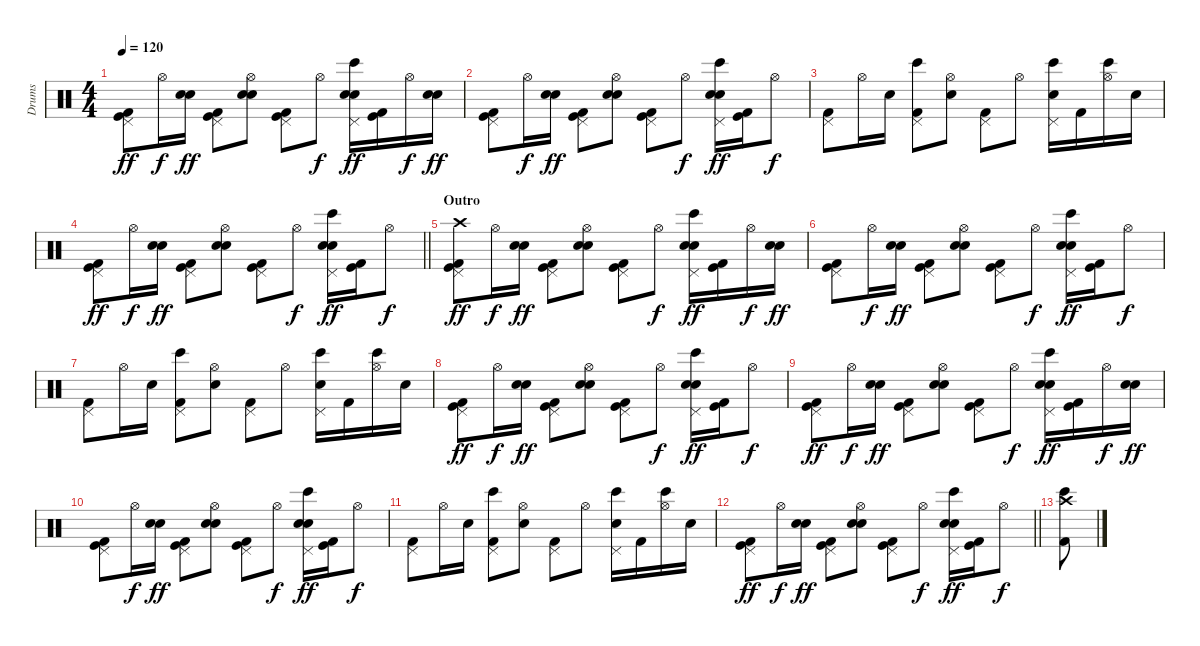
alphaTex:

\track ("Drums" "Drums") {instrument percussion}
\staff {score}
\articulation defaults
\ts (4 4)
\tempo 120
\clef neutral
\ks c
("Pedal Hi-Hat (hit)" "Kick (hit)" "Kick (hit) 2").8{dy ff} "Hi-Hat (open)".16{dy f} ("Snare (hit) 2" "Electric Snare (hit)").16{dy ff} ("Pedal Hi-Hat (hit)" "Kick (hit)" "Kick (hit) 2").8 ("Hi-Hat (open)" "Snare (hit) 2" "Electric Snare (hit)").8 ("Pedal Hi-Hat (hit)" "Kick (hit)" "Kick (hit) 2").8 "Hi-Hat (open)".8{dy f} ("Pedal Hi-Hat (hit)" "Bongo High (hit)" "Snare (hit) 2" "Electric Snare (hit)").16{dy ff} ("Kick (hit)" "Kick (hit) 2").16 "Hi-Hat (open)".16{dy f} ("Snare (hit) 2" "Electric Snare (hit)").16{dy ff} |
("Pedal Hi-Hat (hit)" "Kick (hit)" "Kick (hit) 2").8 "Hi-Hat (open)".16{dy f} ("Snare (hit) 2" "Electric Snare (hit)").16{dy ff} ("Pedal Hi-Hat (hit)" "Kick (hit)" "Kick (hit) 2").8 ("Hi-Hat (open)" "Snare (hit) 2" "Electric Snare (hit)").8 ("Pedal Hi-Hat (hit)" "Kick (hit)" "Kick (hit) 2").8 "Hi-Hat (open)".8{dy f} ("Pedal Hi-Hat (hit)" "Bongo High (hit)" "Snare (hit) 2" "Electric Snare (hit)").16{dy ff} ("Kick (hit)" "Kick (hit) 2").16 "Hi-Hat (open)".8{dy f} |
("Pedal Hi-Hat (hit)" "Kick (hit) 2").8 "Hi-Hat (open)".16 "Snare (hit) 2".16 ("Pedal Hi-Hat (hit)" "Bongo High (hit)" "Kick (hit) 2").8 ("Hi-Hat (open)" "Snare (hit) 2").8 ("Pedal Hi-Hat (hit)" "Kick (hit) 2").8 "Hi-Hat (open)".8 ("Pedal Hi-Hat (hit)" "Bongo High (hit)" "Snare (hit) 2").16 "Kick (hit) 2".16 ("Hi-Hat (open)" "Bongo High (hit)").16 "Snare (hit) 2".16 |
\barLineRight lightlight
("Pedal Hi-Hat (hit)" "Kick (hit)" "Kick (hit) 2").8{dy ff} "Hi-Hat (open)".16{dy f} ("Snare (hit) 2" "Electric Snare (hit)").16{dy ff} ("Pedal Hi-Hat (hit)" "Kick (hit)" "Kick (hit) 2").8 ("Hi-Hat (open)" "Snare (hit) 2" "Electric Snare (hit)").8 ("Pedal Hi-Hat (hit)" "Kick (hit)" "Kick (hit) 2").8 "Hi-Hat (open)".8{dy f} ("Pedal Hi-Hat (hit)" "Bongo High (hit)" "Snare (hit) 2" "Electric Snare (hit)").16{dy ff} ("Kick (hit)" "Kick (hit) 2").16 "Hi-Hat (open)".8{dy f} |
\section ("" "Outro")
("Crash high (hit)" "Pedal Hi-Hat (hit)" "Kick (hit)" "Kick (hit) 2").8{dy ff} "Hi-Hat (open)".16{dy f} ("Snare (hit) 2" "Electric Snare (hit)").16{dy ff} ("Pedal Hi-Hat (hit)" "Kick (hit)" "Kick (hit) 2").8 ("Hi-Hat (open)" "Snare (hit) 2" "Electric Snare (hit)").8 ("Pedal Hi-Hat (hit)" "Kick (hit)" "Kick (hit) 2").8 "Hi-Hat (open)".8{dy f} ("Pedal Hi-Hat (hit)" "Bongo High (hit)" "Snare (hit) 2" "Electric Snare (hit)").16{dy ff} ("Kick (hit)" "Kick (hit) 2").16 "Hi-Hat (open)".16{dy f} ("Snare (hit) 2" "Electric Snare (hit)").16{dy ff} |
("Pedal Hi-Hat (hit)" "Kick (hit)" "Kick (hit) 2").8 "Hi-Hat (open)".16{dy f} ("Snare (hit) 2" "Electric Snare (hit)").16{dy ff} ("Pedal Hi-Hat (hit)" "Kick (hit)" "Kick (hit) 2").8 ("Hi-Hat (open)" "Snare (hit) 2" "Electric Snare (hit)").8 ("Pedal Hi-Hat (hit)" "Kick (hit)" "Kick (hit) 2").8 "Hi-Hat (open)".8{dy f} ("Pedal Hi-Hat (hit)" "Bongo High (hit)" "Snare (hit) 2" "Electric Snare (hit)").16{dy ff} ("Kick (hit)" "Kick (hit) 2").16 "Hi-Hat (open)".8{dy f} |
("Pedal Hi-Hat (hit)" "Kick (hit) 2").8 "Hi-Hat (open)".16 "Snare (hit) 2".16 ("Pedal Hi-Hat (hit)" "Bongo High (hit)" "Kick (hit) 2").8 ("Hi-Hat (open)" "Snare (hit) 2").8 ("Pedal Hi-Hat (hit)" "Kick (hit) 2").8 "Hi-Hat (open)".8 ("Pedal Hi-Hat (hit)" "Bongo High (hit)" "Snare (hit) 2").16 "Kick (hit) 2".16 ("Hi-Hat (open)" "Bongo High (hit)").16 "Snare (hit) 2".16 |
("Pedal Hi-Hat (hit)" "Kick (hit)" "Kick (hit) 2").8{dy ff} "Hi-Hat (open)".16{dy f} ("Snare (hit) 2" "Electric Snare (hit)").16{dy ff} ("Pedal Hi-Hat (hit)" "Kick (hit)" "Kick (hit) 2").8 ("Hi-Hat (open)" "Snare (hit) 2" "Electric Snare (hit)").8 ("Pedal Hi-Hat (hit)" "Kick (hit)" "Kick (hit) 2").8 "Hi-Hat (open)".8{dy f} ("Pedal Hi-Hat (hit)" "Bongo High (hit)" "Snare (hit) 2" "Electric Snare (hit)").16{dy ff} ("Kick (hit)" "Kick (hit) 2").16 "Hi-Hat (open)".8{dy f} |
("Pedal Hi-Hat (hit)" "Kick (hit)" "Kick (hit) 2").8{dy ff} "Hi-Hat (open)".16{dy f} ("Snare (hit) 2" "Electric Snare (hit)").16{dy ff} ("Pedal Hi-Hat (hit)" "Kick (hit)" "Kick (hit) 2").8 ("Hi-Hat (open)" "Snare (hit) 2" "Electric Snare (hit)").8 ("Pedal Hi-Hat (hit)" "Kick (hit)" "Kick (hit) 2").8 "Hi-Hat (open)".8{dy f} ("Pedal Hi-Hat (hit)" "Bongo High (hit)" "Snare (hit) 2" "Electric Snare (hit)").16{dy ff} ("Kick (hit)" "Kick (hit) 2").16 "Hi-Hat (open)".16{dy f} ("Snare (hit) 2" "Electric Snare (hit)").16{dy ff} |
("Pedal Hi-Hat (hit)" "Kick (hit)" "Kick (hit) 2").8 "Hi-Hat (open)".16{dy f} ("Snare (hit) 2" "Electric Snare (hit)").16{dy ff} ("Pedal Hi-Hat (hit)" "Kick (hit)" "Kick (hit) 2").8 ("Hi-Hat (open)" "Snare (hit) 2" "Electric Snare (hit)").8 ("Pedal Hi-Hat (hit)" "Kick (hit)" "Kick (hit) 2").8 "Hi-Hat (open)".8{dy f} ("Pedal Hi-Hat (hit)" "Bongo High (hit)" "Snare (hit) 2" "Electric Snare (hit)").16{dy ff} ("Kick (hit)" "Kick (hit) 2").16 "Hi-Hat (open)".8{dy f} |
("Pedal Hi-Hat (hit)" "Kick (hit) 2").8 "Hi-Hat (open)".16 "Snare (hit) 2".16 ("Pedal Hi-Hat (hit)" "Bongo High (hit)" "Kick (hit) 2").8 ("Hi-Hat (open)" "Snare (hit) 2").8 ("Pedal Hi-Hat (hit)" "Kick (hit) 2").8 "Hi-Hat (open)".8 ("Pedal Hi-Hat (hit)" "Bongo High (hit)" "Snare (hit) 2").16 "Kick (hit) 2".16 ("Hi-Hat (open)" "Bongo High (hit)").16 "Snare (hit) 2".16 |
\barLineRight lightlight
("Pedal Hi-Hat (hit)" "Kick (hit)" "Kick (hit) 2").8{dy ff} "Hi-Hat (open)".16{dy f} ("Snare (hit) 2" "Electric Snare (hit)").16{dy ff} ("Pedal Hi-Hat (hit)" "Kick (hit)" "Kick (hit) 2").8 ("Hi-Hat (open)" "Snare (hit) 2" "Electric Snare (hit)").8 ("Pedal Hi-Hat (hit)" "Kick (hit)" "Kick (hit) 2").8 "Hi-Hat (open)".8{dy f} ("Pedal Hi-Hat (hit)" "Bongo High (hit)" "Snare (hit) 2" "Electric Snare (hit)").16{dy ff} ("Kick (hit)" "Kick (hit) 2").16 "Hi-Hat (open)".8{dy f} |
("Crash high (hit)" "Bongo High (hit)" "Kick (hit) 2").8
